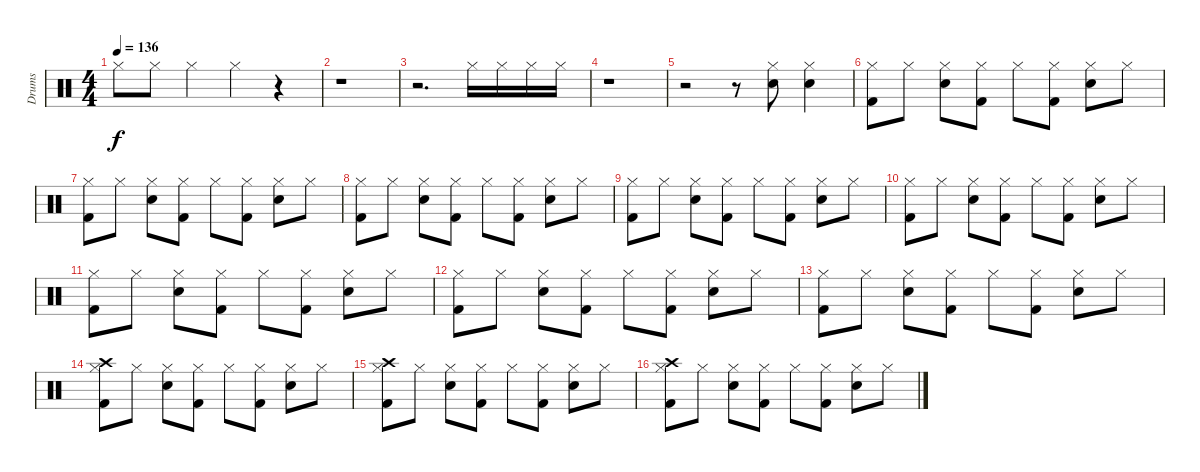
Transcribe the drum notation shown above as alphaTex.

\track ("Drums" "Drums") {instrument percussion}
\staff {score}
\articulation defaults
\ts (4 4)
\tempo 136
\clef neutral
\ks c "Hi-Hat (closed)".8{dy f} "Hi-Hat (closed)".8 "Hi-Hat (closed)".4 "Hi-Hat (closed)".4
r.4 |
r.1 |
r.2{d} "Hi-Hat (closed)".16 "Hi-Hat (closed)".16 "Hi-Hat (closed)".16 "Hi-Hat (closed)".16 |
r.1 |
r.2 r.8 ("Hi-Hat (closed)" "Snare (hit) 2").8 ("Hi-Hat (closed)" "Snare (hit) 2").4 |
("Hi-Hat (closed)" "Kick (hit) 2").8 "Hi-Hat (closed)".8 ("Hi-Hat (closed)" "Snare (hit) 2").8 ("Hi-Hat (closed)" "Kick (hit) 2").8 "Hi-Hat (closed)".8 ("Hi-Hat (closed)" "Kick (hit) 2").8 ("Hi-Hat (closed)" "Snare (hit) 2").8 "Hi-Hat (closed)".8 |
("Hi-Hat (closed)" "Kick (hit) 2").8 "Hi-Hat (closed)".8 ("Hi-Hat (closed)" "Snare (hit) 2").8 ("Hi-Hat (closed)" "Kick (hit) 2").8 "Hi-Hat (closed)".8 ("Hi-Hat (closed)" "Kick (hit) 2").8 ("Hi-Hat (closed)" "Snare (hit) 2").8 "Hi-Hat (closed)".8 |
("Hi-Hat (closed)" "Kick (hit) 2").8 "Hi-Hat (closed)".8 ("Hi-Hat (closed)" "Snare (hit) 2").8 ("Hi-Hat (closed)" "Kick (hit) 2").8 "Hi-Hat (closed)".8 ("Hi-Hat (closed)" "Kick (hit) 2").8 ("Hi-Hat (closed)" "Snare (hit) 2").8 "Hi-Hat (closed)".8 |
("Hi-Hat (closed)" "Kick (hit) 2").8 "Hi-Hat (closed)".8 ("Hi-Hat (closed)" "Snare (hit) 2").8 ("Hi-Hat (closed)" "Kick (hit) 2").8 "Hi-Hat (closed)".8 ("Hi-Hat (closed)" "Kick (hit) 2").8 ("Hi-Hat (closed)" "Snare (hit) 2").8 "Hi-Hat (closed)".8 |
("Hi-Hat (closed)" "Kick (hit) 2").8 "Hi-Hat (closed)".8 ("Hi-Hat (closed)" "Snare (hit) 2").8 ("Hi-Hat (closed)" "Kick (hit) 2").8 "Hi-Hat (closed)".8 ("Hi-Hat (closed)" "Kick (hit) 2").8 ("Hi-Hat (closed)" "Snare (hit) 2").8 "Hi-Hat (closed)".8 |
("Hi-Hat (closed)" "Kick (hit) 2").8 "Hi-Hat (closed)".8 ("Hi-Hat (closed)" "Snare (hit) 2").8 ("Hi-Hat (closed)" "Kick (hit) 2").8 "Hi-Hat (closed)".8 ("Hi-Hat (closed)" "Kick (hit) 2").8 ("Hi-Hat (closed)" "Snare (hit) 2").8 "Hi-Hat (closed)".8 |
("Hi-Hat (closed)" "Kick (hit) 2").8 "Hi-Hat (closed)".8 ("Hi-Hat (closed)" "Snare (hit) 2").8 ("Hi-Hat (closed)" "Kick (hit) 2").8 "Hi-Hat (closed)".8 ("Hi-Hat (closed)" "Kick (hit) 2").8 ("Hi-Hat (closed)" "Snare (hit) 2").8 "Hi-Hat (closed)".8 |
("Hi-Hat (closed)" "Kick (hit) 2").8 "Hi-Hat (closed)".8 ("Hi-Hat (closed)" "Snare (hit) 2").8 ("Hi-Hat (closed)" "Kick (hit) 2").8 "Hi-Hat (closed)".8 ("Hi-Hat (closed)" "Kick (hit) 2").8 ("Hi-Hat (closed)" "Snare (hit) 2").8 "Hi-Hat (closed)".8 |
("Crash high (hit)" "Hi-Hat (closed)" "Kick (hit) 2").8 "Hi-Hat (closed)".8 ("Hi-Hat (closed)" "Snare (hit) 2").8 ("Hi-Hat (closed)" "Kick (hit) 2").8 "Hi-Hat (closed)".8 ("Hi-Hat (closed)" "Kick (hit) 2").8 ("Hi-Hat (closed)" "Snare (hit) 2").8 "Hi-Hat (closed)".8 |
("Crash high (hit)" "Hi-Hat (closed)" "Kick (hit) 2").8 "Hi-Hat (closed)".8 ("Hi-Hat (closed)" "Snare (hit) 2").8 ("Hi-Hat (closed)" "Kick (hit) 2").8 "Hi-Hat (closed)".8 ("Hi-Hat (closed)" "Kick (hit) 2").8 ("Hi-Hat (closed)" "Snare (hit) 2").8 "Hi-Hat (closed)".8 |
("Crash high (hit)" "Hi-Hat (closed)" "Kick (hit) 2").8 "Hi-Hat (closed)".8 ("Hi-Hat (closed)" "Snare (hit) 2").8 ("Hi-Hat (closed)" "Kick (hit) 2").8 "Hi-Hat (closed)".8 ("Hi-Hat (closed)" "Kick (hit) 2").8 ("Hi-Hat (closed)" "Snare (hit) 2").8 "Hi-Hat (closed)".8
